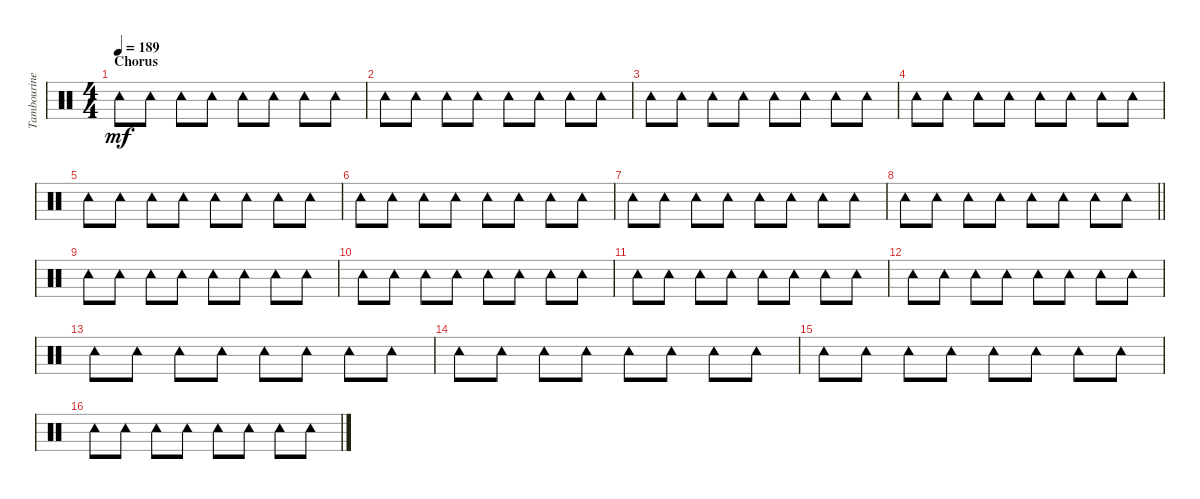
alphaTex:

\track ("Tambourine" "Tambourine") {instrument percussion}
\staff {score}
\articulation defaults
\ts (4 4)
\section ("" "Chorus")
\tempo 189
\clef neutral
\ks c "Tambourine (hit)".8{dy mf} "Tambourine (hit)".8 "Tambourine (hit)".8 "Tambourine (hit)".8 "Tambourine (hit)".8 "Tambourine (hit)".8 "Tambourine (hit)".8 "Tambourine (hit)".8
|
"Tambourine (hit)".8 "Tambourine (hit)".8 "Tambourine (hit)".8 "Tambourine (hit)".8 "Tambourine (hit)".8 "Tambourine (hit)".8 "Tambourine (hit)".8 "Tambourine (hit)".8 |
"Tambourine (hit)".8 "Tambourine (hit)".8 "Tambourine (hit)".8 "Tambourine (hit)".8 "Tambourine (hit)".8 "Tambourine (hit)".8 "Tambourine (hit)".8 "Tambourine (hit)".8 |
"Tambourine (hit)".8 "Tambourine (hit)".8 "Tambourine (hit)".8 "Tambourine (hit)".8 "Tambourine (hit)".8 "Tambourine (hit)".8 "Tambourine (hit)".8 "Tambourine (hit)".8 |
"Tambourine (hit)".8 "Tambourine (hit)".8 "Tambourine (hit)".8 "Tambourine (hit)".8 "Tambourine (hit)".8 "Tambourine (hit)".8 "Tambourine (hit)".8 "Tambourine (hit)".8 |
"Tambourine (hit)".8 "Tambourine (hit)".8 "Tambourine (hit)".8 "Tambourine (hit)".8 "Tambourine (hit)".8 "Tambourine (hit)".8 "Tambourine (hit)".8 "Tambourine (hit)".8 |
"Tambourine (hit)".8 "Tambourine (hit)".8 "Tambourine (hit)".8 "Tambourine (hit)".8 "Tambourine (hit)".8 "Tambourine (hit)".8 "Tambourine (hit)".8 "Tambourine (hit)".8 |
\barLineRight lightlight "Tambourine (hit)".8 "Tambourine (hit)".8 "Tambourine (hit)".8 "Tambourine (hit)".8 "Tambourine (hit)".8 "Tambourine (hit)".8 "Tambourine (hit)".8 "Tambourine (hit)".8
|
"Tambourine (hit)".8 "Tambourine (hit)".8 "Tambourine (hit)".8 "Tambourine (hit)".8 "Tambourine (hit)".8 "Tambourine (hit)".8 "Tambourine (hit)".8 "Tambourine (hit)".8 |
"Tambourine (hit)".8 "Tambourine (hit)".8 "Tambourine (hit)".8 "Tambourine (hit)".8 "Tambourine (hit)".8 "Tambourine (hit)".8 "Tambourine (hit)".8 "Tambourine (hit)".8 |
"Tambourine (hit)".8 "Tambourine (hit)".8 "Tambourine (hit)".8 "Tambourine (hit)".8 "Tambourine (hit)".8 "Tambourine (hit)".8 "Tambourine (hit)".8 "Tambourine (hit)".8 |
"Tambourine (hit)".8 "Tambourine (hit)".8 "Tambourine (hit)".8 "Tambourine (hit)".8 "Tambourine (hit)".8 "Tambourine (hit)".8 "Tambourine (hit)".8 "Tambourine (hit)".8 |
"Tambourine (hit)".8 "Tambourine (hit)".8 "Tambourine (hit)".8 "Tambourine (hit)".8 "Tambourine (hit)".8 "Tambourine (hit)".8 "Tambourine (hit)".8 "Tambourine (hit)".8 |
"Tambourine (hit)".8 "Tambourine (hit)".8 "Tambourine (hit)".8 "Tambourine (hit)".8 "Tambourine (hit)".8 "Tambourine (hit)".8 "Tambourine (hit)".8 "Tambourine (hit)".8 |
"Tambourine (hit)".8 "Tambourine (hit)".8 "Tambourine (hit)".8 "Tambourine (hit)".8 "Tambourine (hit)".8 "Tambourine (hit)".8 "Tambourine (hit)".8 "Tambourine (hit)".8 |
"Tambourine (hit)".8 "Tambourine (hit)".8 "Tambourine (hit)".8 "Tambourine (hit)".8 "Tambourine (hit)".8 "Tambourine (hit)".8 "Tambourine (hit)".8 "Tambourine (hit)".8
